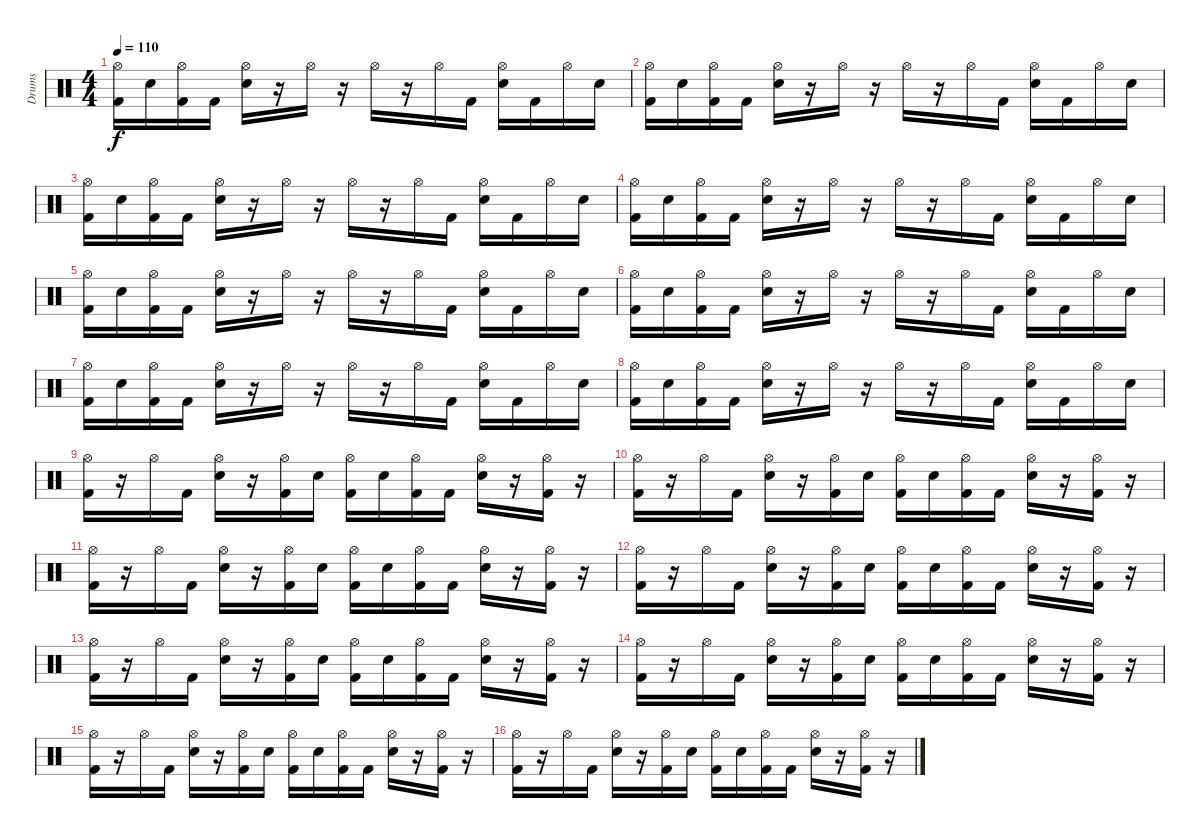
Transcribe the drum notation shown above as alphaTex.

\track ("Drums" "Drums") {instrument percussion}
\staff {score}
\articulation defaults
\ts (4 4)
\tempo 110
\clef neutral
\ks c
("Kick (hit) 2" "Hi-Hat (open)").16{dy f} "Electric Snare (hit)".16 ("Kick (hit) 2" "Hi-Hat (open)").16 "Kick (hit) 2".16 ("Electric Snare (hit)" "Hi-Hat (open)").16 r.16 "Hi-Hat (open)".16 r.16 "Hi-Hat (open)".16 r.16 "Hi-Hat (open)".16 "Kick (hit) 2".16 ("Electric Snare (hit)" "Hi-Hat (open)").16 "Kick (hit) 2".16 "Hi-Hat (open)".16 "Electric Snare (hit)".16 |
("Kick (hit) 2" "Hi-Hat (open)").16 "Electric Snare (hit)".16 ("Kick (hit) 2" "Hi-Hat (open)").16 "Kick (hit) 2".16 ("Electric Snare (hit)" "Hi-Hat (open)").16 r.16 "Hi-Hat (open)".16 r.16 "Hi-Hat (open)".16 r.16 "Hi-Hat (open)".16 "Kick (hit) 2".16 ("Electric Snare (hit)" "Hi-Hat (open)").16 "Kick (hit) 2".16 "Hi-Hat (open)".16 "Electric Snare (hit)".16 |
("Kick (hit) 2" "Hi-Hat (open)").16 "Electric Snare (hit)".16 ("Kick (hit) 2" "Hi-Hat (open)").16 "Kick (hit) 2".16 ("Electric Snare (hit)" "Hi-Hat (open)").16 r.16 "Hi-Hat (open)".16 r.16 "Hi-Hat (open)".16 r.16 "Hi-Hat (open)".16 "Kick (hit) 2".16 ("Electric Snare (hit)" "Hi-Hat (open)").16 "Kick (hit) 2".16 "Hi-Hat (open)".16 "Electric Snare (hit)".16 |
("Kick (hit) 2" "Hi-Hat (open)").16 "Electric Snare (hit)".16 ("Kick (hit) 2" "Hi-Hat (open)").16 "Kick (hit) 2".16 ("Electric Snare (hit)" "Hi-Hat (open)").16 r.16 "Hi-Hat (open)".16 r.16 "Hi-Hat (open)".16 r.16 "Hi-Hat (open)".16 "Kick (hit) 2".16 ("Electric Snare (hit)" "Hi-Hat (open)").16 "Kick (hit) 2".16 "Hi-Hat (open)".16 "Electric Snare (hit)".16 |
("Kick (hit) 2" "Hi-Hat (open)").16 "Electric Snare (hit)".16 ("Kick (hit) 2" "Hi-Hat (open)").16 "Kick (hit) 2".16 ("Electric Snare (hit)" "Hi-Hat (open)").16 r.16 "Hi-Hat (open)".16 r.16 "Hi-Hat (open)".16 r.16 "Hi-Hat (open)".16 "Kick (hit) 2".16 ("Electric Snare (hit)" "Hi-Hat (open)").16 "Kick (hit) 2".16 "Hi-Hat (open)".16 "Electric Snare (hit)".16 |
("Kick (hit) 2" "Hi-Hat (open)").16 "Electric Snare (hit)".16 ("Kick (hit) 2" "Hi-Hat (open)").16 "Kick (hit) 2".16 ("Electric Snare (hit)" "Hi-Hat (open)").16 r.16 "Hi-Hat (open)".16 r.16 "Hi-Hat (open)".16 r.16 "Hi-Hat (open)".16 "Kick (hit) 2".16 ("Electric Snare (hit)" "Hi-Hat (open)").16 "Kick (hit) 2".16 "Hi-Hat (open)".16 "Electric Snare (hit)".16 |
("Kick (hit) 2" "Hi-Hat (open)").16 "Electric Snare (hit)".16 ("Kick (hit) 2" "Hi-Hat (open)").16 "Kick (hit) 2".16 ("Electric Snare (hit)" "Hi-Hat (open)").16 r.16 "Hi-Hat (open)".16 r.16 "Hi-Hat (open)".16 r.16 "Hi-Hat (open)".16 "Kick (hit) 2".16 ("Electric Snare (hit)" "Hi-Hat (open)").16 "Kick (hit) 2".16 "Hi-Hat (open)".16 "Electric Snare (hit)".16 |
("Kick (hit) 2" "Hi-Hat (open)").16 "Electric Snare (hit)".16 ("Kick (hit) 2" "Hi-Hat (open)").16 "Kick (hit) 2".16 ("Electric Snare (hit)" "Hi-Hat (open)").16 r.16 "Hi-Hat (open)".16 r.16 "Hi-Hat (open)".16 r.16 "Hi-Hat (open)".16 "Kick (hit) 2".16 ("Electric Snare (hit)" "Hi-Hat (open)").16 "Kick (hit) 2".16 "Hi-Hat (open)".16 "Electric Snare (hit)".16 |
("Hi-Hat (open)" "Kick (hit) 2").16 r.16 "Hi-Hat (open)".16 "Kick (hit) 2".16 ("Hi-Hat (open)" "Electric Snare (hit)").16 r.16 ("Hi-Hat (open)" "Kick (hit) 2").16 "Electric Snare (hit)".16 ("Hi-Hat (open)" "Kick (hit) 2").16 "Electric Snare (hit)".16 ("Hi-Hat (open)" "Kick (hit) 2").16 "Kick (hit) 2".16 ("Hi-Hat (open)" "Electric Snare (hit)").16 r.16 ("Hi-Hat (open)" "Kick (hit) 2").16 r.16 |
("Kick (hit) 2" "Hi-Hat (open)").16 r.16 "Hi-Hat (open)".16 "Kick (hit) 2".16 ("Hi-Hat (open)" "Electric Snare (hit)").16 r.16 ("Hi-Hat (open)" "Kick (hit) 2").16 "Electric Snare (hit)".16 ("Hi-Hat (open)" "Kick (hit) 2").16 "Electric Snare (hit)".16 ("Hi-Hat (open)" "Kick (hit) 2").16 "Kick (hit) 2".16 ("Hi-Hat (open)" "Electric Snare (hit)").16 r.16 ("Hi-Hat (open)" "Kick (hit) 2").16 r.16 |
("Kick (hit) 2" "Hi-Hat (open)").16 r.16 "Hi-Hat (open)".16 "Kick (hit) 2".16 ("Hi-Hat (open)" "Electric Snare (hit)").16 r.16 ("Hi-Hat (open)" "Kick (hit) 2").16 "Electric Snare (hit)".16 ("Hi-Hat (open)" "Kick (hit) 2").16 "Electric Snare (hit)".16 ("Hi-Hat (open)" "Kick (hit) 2").16 "Kick (hit) 2".16 ("Hi-Hat (open)" "Electric Snare (hit)").16 r.16 ("Hi-Hat (open)" "Kick (hit) 2").16 r.16 |
("Kick (hit) 2" "Hi-Hat (open)").16 r.16 "Hi-Hat (open)".16 "Kick (hit) 2".16 ("Hi-Hat (open)" "Electric Snare (hit)").16 r.16 ("Hi-Hat (open)" "Kick (hit) 2").16 "Electric Snare (hit)".16 ("Hi-Hat (open)" "Kick (hit) 2").16 "Electric Snare (hit)".16 ("Hi-Hat (open)" "Kick (hit) 2").16 "Kick (hit) 2".16 ("Hi-Hat (open)" "Electric Snare (hit)").16 r.16 ("Hi-Hat (open)" "Kick (hit) 2").16 r.16 |
("Hi-Hat (open)" "Kick (hit) 2").16 r.16 "Hi-Hat (open)".16 "Kick (hit) 2".16 ("Hi-Hat (open)" "Electric Snare (hit)").16 r.16 ("Hi-Hat (open)" "Kick (hit) 2").16 "Electric Snare (hit)".16 ("Hi-Hat (open)" "Kick (hit) 2").16 "Electric Snare (hit)".16 ("Hi-Hat (open)" "Kick (hit) 2").16 "Kick (hit) 2".16 ("Hi-Hat (open)" "Electric Snare (hit)").16 r.16 ("Hi-Hat (open)" "Kick (hit) 2").16 r.16 |
("Kick (hit) 2" "Hi-Hat (open)").16 r.16 "Hi-Hat (open)".16 "Kick (hit) 2".16 ("Hi-Hat (open)" "Electric Snare (hit)").16 r.16 ("Hi-Hat (open)" "Kick (hit) 2").16 "Electric Snare (hit)".16 ("Hi-Hat (open)" "Kick (hit) 2").16 "Electric Snare (hit)".16 ("Hi-Hat (open)" "Kick (hit) 2").16 "Kick (hit) 2".16 ("Hi-Hat (open)" "Electric Snare (hit)").16 r.16 ("Hi-Hat (open)" "Kick (hit) 2").16 r.16 |
("Kick (hit) 2" "Hi-Hat (open)").16 r.16 "Hi-Hat (open)".16 "Kick (hit) 2".16 ("Hi-Hat (open)" "Electric Snare (hit)").16 r.16 ("Hi-Hat (open)" "Kick (hit) 2").16 "Electric Snare (hit)".16 ("Hi-Hat (open)" "Kick (hit) 2").16 "Electric Snare (hit)".16 ("Hi-Hat (open)" "Kick (hit) 2").16 "Kick (hit) 2".16 ("Hi-Hat (open)" "Electric Snare (hit)").16 r.16 ("Hi-Hat (open)" "Kick (hit) 2").16 r.16 |
("Kick (hit) 2" "Hi-Hat (open)").16 r.16 "Hi-Hat (open)".16 "Kick (hit) 2".16 ("Hi-Hat (open)" "Electric Snare (hit)").16 r.16 ("Hi-Hat (open)" "Kick (hit) 2").16 "Electric Snare (hit)".16 ("Hi-Hat (open)" "Kick (hit) 2").16 "Electric Snare (hit)".16 ("Hi-Hat (open)" "Kick (hit) 2").16 "Kick (hit) 2".16 ("Hi-Hat (open)" "Electric Snare (hit)").16 r.16 ("Hi-Hat (open)" "Kick (hit) 2").16 r.16
